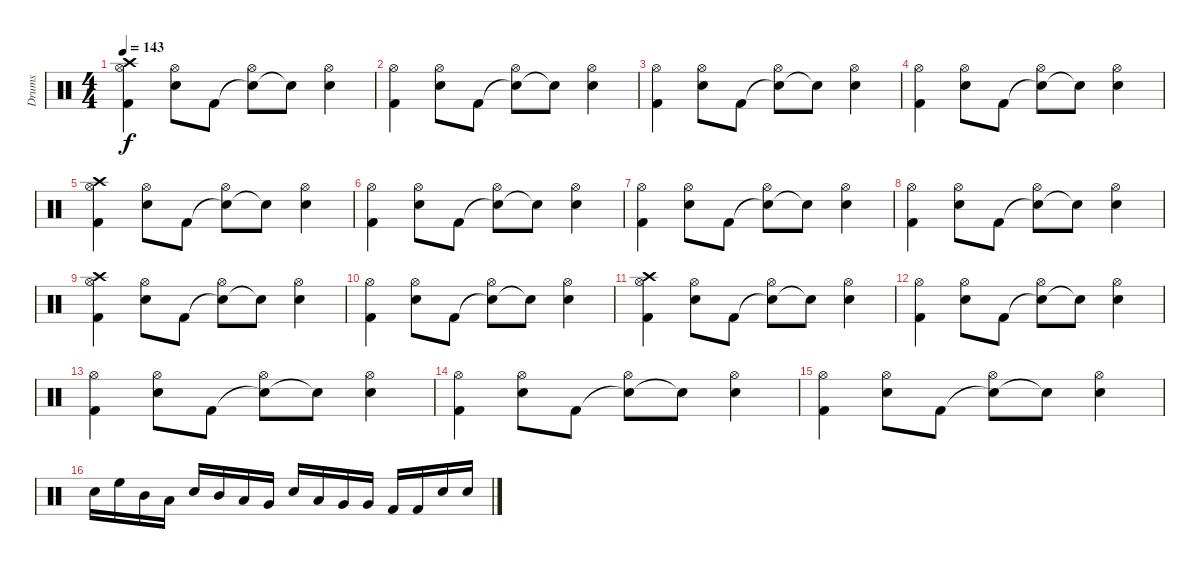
\track ("Drums" "Drums") {instrument percussion}
\staff {score}
\articulation defaults
\ts (4 4)
\tempo 143
\clef neutral
\ks c
("Crash high (hit)" "Kick (hit) 2" "Hi-Hat (open)").4{dy f} ("Snare (hit) 2" "Hi-Hat (open)").8 "Kick (hit) 2".8 ("Snare (hit)"{t} "Hi-Hat (open)").8 "Snare (hit)"{t}.8 ("Snare (hit) 2" "Hi-Hat (open)").4 |
("Kick (hit) 2" "Hi-Hat (open)").4 ("Snare (hit) 2" "Hi-Hat (open)").8 "Kick (hit) 2".8 ("Snare (hit)"{t} "Hi-Hat (open)").8 "Snare (hit)"{t}.8 ("Snare (hit) 2" "Hi-Hat (open)").4 |
("Kick (hit) 2" "Hi-Hat (open)").4 ("Snare (hit) 2" "Hi-Hat (open)").8 "Kick (hit) 2".8 ("Snare (hit)"{t} "Hi-Hat (open)").8 "Snare (hit)"{t}.8 ("Snare (hit) 2" "Hi-Hat (open)").4 |
("Kick (hit) 2" "Hi-Hat (open)").4 ("Snare (hit) 2" "Hi-Hat (open)").8 "Kick (hit) 2".8 ("Snare (hit)"{t} "Hi-Hat (open)").8 "Snare (hit)"{t}.8 ("Snare (hit) 2" "Hi-Hat (open)").4 |
("Crash high (hit)" "Kick (hit) 2" "Hi-Hat (open)").4 ("Snare (hit) 2" "Hi-Hat (open)").8 "Kick (hit) 2".8 ("Snare (hit)"{t} "Hi-Hat (open)").8 "Snare (hit)"{t}.8 ("Snare (hit) 2" "Hi-Hat (open)").4 |
("Kick (hit) 2" "Hi-Hat (open)").4 ("Snare (hit) 2" "Hi-Hat (open)").8 "Kick (hit) 2".8 ("Snare (hit)"{t} "Hi-Hat (open)").8 "Snare (hit)"{t}.8 ("Snare (hit) 2" "Hi-Hat (open)").4 |
("Kick (hit) 2" "Hi-Hat (open)").4 ("Snare (hit) 2" "Hi-Hat (open)").8 "Kick (hit) 2".8 ("Snare (hit)"{t} "Hi-Hat (open)").8 "Snare (hit)"{t}.8 ("Snare (hit) 2" "Hi-Hat (open)").4 |
("Kick (hit) 2" "Hi-Hat (open)").4 ("Snare (hit) 2" "Hi-Hat (open)").8 "Kick (hit) 2".8 ("Snare (hit)"{t} "Hi-Hat (open)").8 "Snare (hit)"{t}.8 ("Snare (hit) 2" "Hi-Hat (open)").4 |
("Crash high (hit)" "Kick (hit) 2" "Hi-Hat (open)").4 ("Snare (hit) 2" "Hi-Hat (open)").8 "Kick (hit) 2".8 ("Snare (hit)"{t} "Hi-Hat (open)").8 "Snare (hit)"{t}.8 ("Snare (hit) 2" "Hi-Hat (open)").4 |
("Kick (hit) 2" "Hi-Hat (open)").4 ("Snare (hit) 2" "Hi-Hat (open)").8 "Kick (hit) 2".8 ("Snare (hit)"{t} "Hi-Hat (open)").8 "Snare (hit)"{t}.8 ("Snare (hit) 2" "Hi-Hat (open)").4 |
("Crash high (hit)" "Kick (hit) 2" "Hi-Hat (open)").4 ("Snare (hit) 2" "Hi-Hat (open)").8 "Kick (hit) 2".8 ("Snare (hit)"{t} "Hi-Hat (open)").8 "Snare (hit)"{t}.8 ("Snare (hit) 2" "Hi-Hat (open)").4 |
("Kick (hit) 2" "Hi-Hat (open)").4 ("Snare (hit) 2" "Hi-Hat (open)").8 "Kick (hit) 2".8 ("Snare (hit)"{t} "Hi-Hat (open)").8 "Snare (hit)"{t}.8 ("Snare (hit) 2" "Hi-Hat (open)").4 |
("Kick (hit) 2" "Hi-Hat (open)").4 ("Snare (hit) 2" "Hi-Hat (open)").8 "Kick (hit) 2".8 ("Snare (hit)"{t} "Hi-Hat (open)").8 "Snare (hit)"{t}.8 ("Snare (hit) 2" "Hi-Hat (open)").4 |
("Kick (hit) 2" "Hi-Hat (open)").4 ("Snare (hit) 2" "Hi-Hat (open)").8 "Kick (hit) 2".8 ("Snare (hit)"{t} "Hi-Hat (open)").8 "Snare (hit)"{t}.8 ("Snare (hit) 2" "Hi-Hat (open)").4 |
("Kick (hit) 2" "Hi-Hat (open)").4 ("Snare (hit) 2" "Hi-Hat (open)").8 "Kick (hit) 2".8 ("Snare (hit)"{t} "Hi-Hat (open)").8 "Snare (hit)"{t}.8 ("Snare (hit) 2" "Hi-Hat (open)").4 |
"Snare (hit) 2".16 "High Floor Tom (hit)".16 "Mid Tom (hit)".16 "Low Tom (hit)".16 "Snare (hit) 2".16 "Mid Tom (hit)".16 "Low Tom (hit)".16 "Very Low Tom (hit)".16 "Snare (hit) 2".16 "Low Tom (hit)".16 "Very Low Tom (hit)".16 "Very Low Tom (hit)".16 "Kick (hit) 2".16 "Kick (hit) 2".16 "Snare (hit) 2".16 "Snare (hit) 2".16
